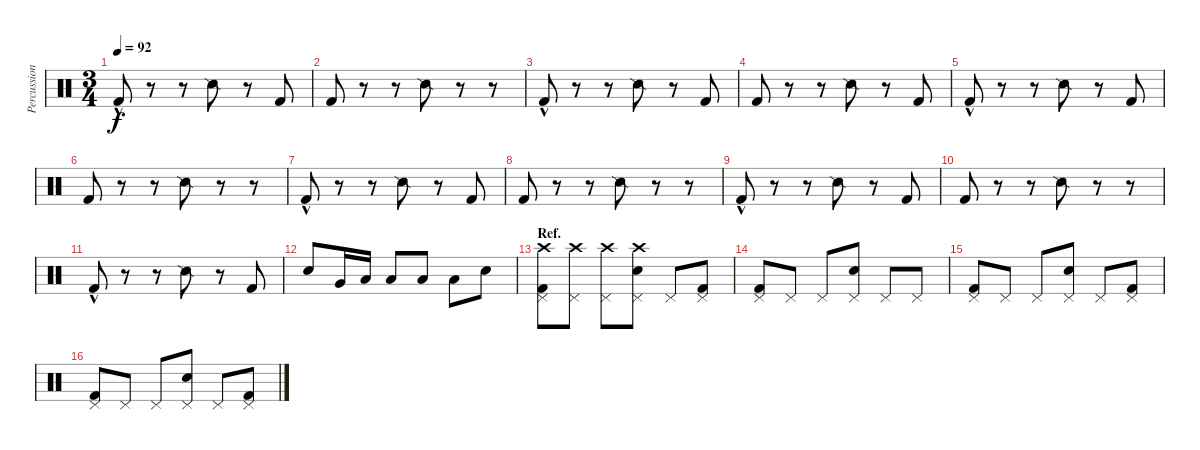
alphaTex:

\track ("Percussion" "Percussion") {instrument percussion}
\staff {score}
\articulation defaults
\ts (3 4)
\tempo 92
\clef neutral
\ks c "Kick (hit) 2"{hac}.8{dy f}
r.8 r.8 "Snare (side stick) 2".8 r.8 "Kick (hit) 2".8 |
"Kick (hit) 2".8 r.8 r.8 "Snare (side stick) 2".8 r.8 r.8 |
"Kick (hit) 2"{hac}.8 r.8 r.8 "Snare (side stick) 2".8 r.8 "Kick (hit) 2".8 |
"Kick (hit) 2".8 r.8 r.8 "Snare (side stick) 2".8 r.8 "Kick (hit) 2".8 |
"Kick (hit) 2"{hac}.8 r.8 r.8 "Snare (side stick) 2".8 r.8 "Kick (hit) 2".8 |
"Kick (hit) 2".8 r.8 r.8 "Snare (side stick) 2".8 r.8 r.8 |
"Kick (hit) 2"{hac}.8 r.8 r.8 "Snare (side stick) 2".8 r.8 "Kick (hit) 2".8 |
"Kick (hit) 2".8 r.8 r.8 "Snare (side stick) 2".8 r.8 r.8 |
"Kick (hit) 2"{hac}.8 r.8 r.8 "Snare (side stick) 2".8 r.8 "Kick (hit) 2".8 |
"Kick (hit) 2".8 r.8 r.8 "Snare (side stick) 2".8 r.8 r.8 |
"Kick (hit) 2"{hac}.8 r.8 r.8 "Snare (side stick) 2".8 r.8 "Kick (hit) 2".8 |
"Electric Snare (hit)".8 "Very Low Tom (hit)".16 "Low Tom (hit)".16 "Low Tom (hit)".8 "Low Tom (hit)".8 "Low Tom (hit)".8 "Snare (hit)".8 |
\section ("" "Ref.")
("Pedal Hi-Hat (hit)" "Kick (hit) 2" "Crash high (hit)").8 ("Pedal Hi-Hat (hit)" "Crash high (hit)").8 ("Pedal Hi-Hat (hit)" "Crash high (hit)").8 ("Pedal Hi-Hat (hit)" "Electric Snare (hit)" "Crash high (hit)").8 "Pedal Hi-Hat (hit)".8 ("Pedal Hi-Hat (hit)" "Kick (hit) 2").8 |
("Pedal Hi-Hat (hit)" "Kick (hit) 2").8 "Pedal Hi-Hat (hit)".8 "Pedal Hi-Hat (hit)".8 ("Pedal Hi-Hat (hit)" "Electric Snare (hit)").8 "Pedal Hi-Hat (hit)".8 "Pedal Hi-Hat (hit)".8 |
("Pedal Hi-Hat (hit)" "Kick (hit) 2").8 "Pedal Hi-Hat (hit)".8 "Pedal Hi-Hat (hit)".8 ("Pedal Hi-Hat (hit)" "Electric Snare (hit)").8 "Pedal Hi-Hat (hit)".8 ("Pedal Hi-Hat (hit)" "Kick (hit) 2").8 |
("Pedal Hi-Hat (hit)" "Kick (hit) 2").8 "Pedal Hi-Hat (hit)".8 "Pedal Hi-Hat (hit)".8 ("Pedal Hi-Hat (hit)" "Electric Snare (hit)").8 "Pedal Hi-Hat (hit)".8 ("Pedal Hi-Hat (hit)" "Kick (hit) 2").8
